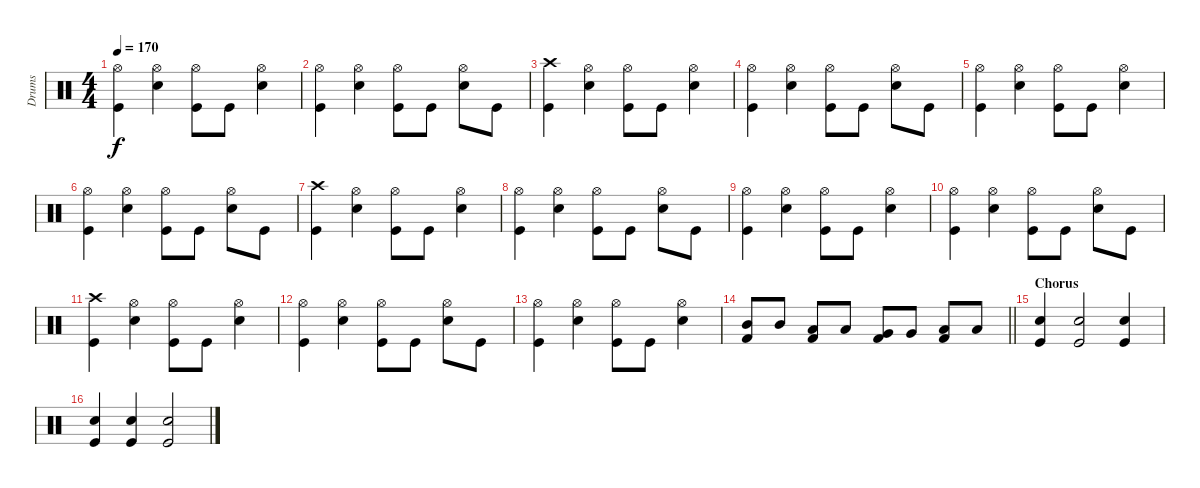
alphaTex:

\track ("Drums" "Drums") {instrument percussion}
\staff {score}
\articulation defaults
\ts (4 4)
\tempo 170
\clef neutral
\ks c
("Hi-Hat (open)" "Kick (hit)").4{dy f} ("Hi-Hat (open)" "Electric Snare (hit)").4 ("Hi-Hat (open)" "Kick (hit)").8 "Kick (hit)".8 ("Hi-Hat (open)" "Electric Snare (hit)").4 |
("Hi-Hat (open)" "Kick (hit)").4 ("Hi-Hat (open)" "Electric Snare (hit)").4 ("Hi-Hat (open)" "Kick (hit)").8 "Kick (hit)".8 ("Hi-Hat (open)" "Electric Snare (hit)").8 "Kick (hit)".8 |
("Crash high (hit)" "Kick (hit)").4 ("Hi-Hat (open)" "Electric Snare (hit)").4 ("Hi-Hat (open)" "Kick (hit)").8 "Kick (hit)".8 ("Hi-Hat (open)" "Electric Snare (hit)").4 |
("Hi-Hat (open)" "Kick (hit)").4 ("Hi-Hat (open)" "Electric Snare (hit)").4 ("Hi-Hat (open)" "Kick (hit)").8 "Kick (hit)".8 ("Hi-Hat (open)" "Electric Snare (hit)").8 "Kick (hit)".8 |
("Hi-Hat (open)" "Kick (hit)").4 ("Hi-Hat (open)" "Electric Snare (hit)").4 ("Hi-Hat (open)" "Kick (hit)").8 "Kick (hit)".8 ("Hi-Hat (open)" "Electric Snare (hit)").4 |
("Hi-Hat (open)" "Kick (hit)").4 ("Hi-Hat (open)" "Electric Snare (hit)").4 ("Hi-Hat (open)" "Kick (hit)").8 "Kick (hit)".8 ("Hi-Hat (open)" "Electric Snare (hit)").8 "Kick (hit)".8 |
("Crash high (hit)" "Kick (hit)").4 ("Hi-Hat (open)" "Electric Snare (hit)").4 ("Hi-Hat (open)" "Kick (hit)").8 "Kick (hit)".8 ("Hi-Hat (open)" "Electric Snare (hit)").4 |
("Hi-Hat (open)" "Kick (hit)").4 ("Hi-Hat (open)" "Electric Snare (hit)").4 ("Hi-Hat (open)" "Kick (hit)").8 "Kick (hit)".8 ("Hi-Hat (open)" "Electric Snare (hit)").8 "Kick (hit)".8 |
("Hi-Hat (open)" "Kick (hit)").4 ("Hi-Hat (open)" "Electric Snare (hit)").4 ("Hi-Hat (open)" "Kick (hit)").8 "Kick (hit)".8 ("Hi-Hat (open)" "Electric Snare (hit)").4 |
("Hi-Hat (open)" "Kick (hit)").4 ("Hi-Hat (open)" "Electric Snare (hit)").4 ("Hi-Hat (open)" "Kick (hit)").8 "Kick (hit)".8 ("Hi-Hat (open)" "Electric Snare (hit)").8 "Kick (hit)".8 |
("Crash high (hit)" "Kick (hit)").4 ("Hi-Hat (open)" "Electric Snare (hit)").4 ("Hi-Hat (open)" "Kick (hit)").8 "Kick (hit)".8 ("Hi-Hat (open)" "Electric Snare (hit)").4 |
("Hi-Hat (open)" "Kick (hit)").4 ("Hi-Hat (open)" "Electric Snare (hit)").4 ("Hi-Hat (open)" "Kick (hit)").8 "Kick (hit)".8 ("Hi-Hat (open)" "Electric Snare (hit)").8 "Kick (hit)".8 |
("Hi-Hat (open)" "Kick (hit)").4 ("Hi-Hat (open)" "Electric Snare (hit)").4 ("Hi-Hat (open)" "Kick (hit)").8 "Kick (hit)".8 ("Hi-Hat (open)" "Electric Snare (hit)").4 |
\barLineRight lightlight
("Mid Tom (hit)" "Kick (hit) 2").8 "Mid Tom (hit)".8 ("Low Tom (hit)" "Kick (hit) 2").8 "Low Tom (hit)".8 ("Very Low Tom (hit)" "Kick (hit) 2").8 "Very Low Tom (hit)".8 ("Low Floor Tom (hit)" "Kick (hit) 2").8 "Low Floor Tom (hit)".8 |
\section ("" "Chorus ")
("Electric Snare (hit)" "Kick (hit)").4 ("Electric Snare (hit)" "Kick (hit)").2 ("Electric Snare (hit)" "Kick (hit)").4 |
("Electric Snare (hit)" "Kick (hit)").4 ("Electric Snare (hit)" "Kick (hit)").4 ("Electric Snare (hit)" "Kick (hit)").2
